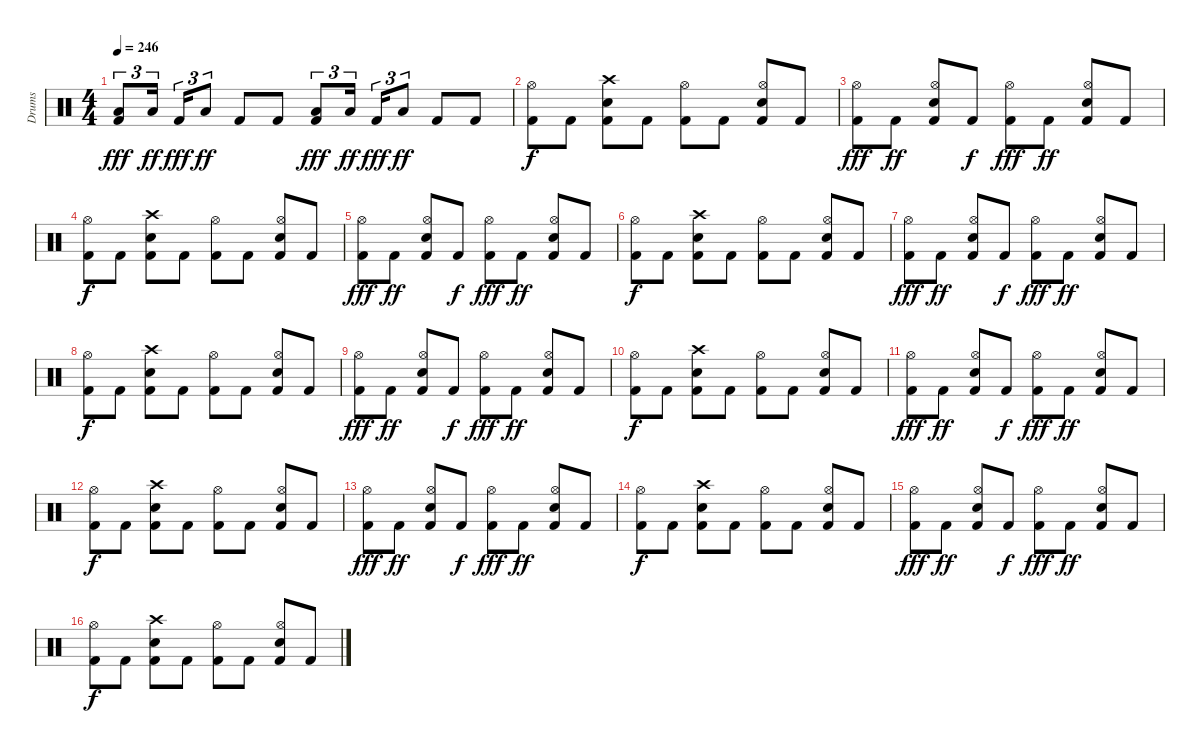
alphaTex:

\track ("Drums" "Drums") {instrument percussion}
\staff {score}
\articulation defaults
\ts (4 4)
\tempo 246
\clef neutral
\ks c
("Kick (hit) 2" "Low Tom (hit)").8{tu (3 2) dy fff volume 12} "Low Tom (hit)".16{tu (3 2) dy ff} "Kick (hit) 2".16{tu (3 2) dy fff} "Low Tom (hit)".8{tu (3 2) dy ff} "Kick (hit) 2".8 "Kick (hit) 2".8 ("Kick (hit) 2" "Low Floor Tom (hit)").8{tu (3 2) dy fff} "Low Floor Tom (hit)".16{tu (3 2) dy ff} "Kick (hit) 2".16{tu (3 2) dy fff} "Low Floor Tom (hit)".8{tu (3 2) dy ff} "Kick (hit) 2".8 "Kick (hit) 2".8 |
("Kick (hit) 2" "Hi-Hat (open)").8{dy f volume 12} "Kick (hit) 2".8 ("Kick (hit) 2" "Snare (hit) 2" "Crash high (hit)").8 "Kick (hit) 2".8 ("Kick (hit) 2" "Hi-Hat (open)").8 "Kick (hit) 2".8 ("Kick (hit) 2" "Snare (hit) 2" "Hi-Hat (open)").8 "Kick (hit) 2".8 |
("Kick (hit) 2" "Hi-Hat (open)").8{dy fff volume 12} "Kick (hit) 2".8{dy ff} ("Kick (hit) 2" "Snare (hit) 2" "Hi-Hat (open)").8 "Kick (hit) 2".8{dy f} ("Kick (hit) 2" "Hi-Hat (open)").8{dy fff} "Kick (hit) 2".8{dy ff} ("Kick (hit) 2" "Snare (hit) 2" "Hi-Hat (open)").8 "Kick (hit) 2".8 |
("Kick (hit) 2" "Hi-Hat (open)").8{dy f volume 12} "Kick (hit) 2".8 ("Kick (hit) 2" "Snare (hit) 2" "Crash high (hit)").8 "Kick (hit) 2".8 ("Kick (hit) 2" "Hi-Hat (open)").8 "Kick (hit) 2".8 ("Kick (hit) 2" "Snare (hit) 2" "Hi-Hat (open)").8 "Kick (hit) 2".8 |
("Kick (hit) 2" "Hi-Hat (open)").8{dy fff volume 12} "Kick (hit) 2".8{dy ff} ("Kick (hit) 2" "Snare (hit) 2" "Hi-Hat (open)").8 "Kick (hit) 2".8{dy f} ("Kick (hit) 2" "Hi-Hat (open)").8{dy fff} "Kick (hit) 2".8{dy ff} ("Kick (hit) 2" "Snare (hit) 2" "Hi-Hat (open)").8 "Kick (hit) 2".8 |
("Kick (hit) 2" "Hi-Hat (open)").8{dy f volume 12} "Kick (hit) 2".8 ("Kick (hit) 2" "Snare (hit) 2" "Crash high (hit)").8 "Kick (hit) 2".8 ("Kick (hit) 2" "Hi-Hat (open)").8 "Kick (hit) 2".8 ("Kick (hit) 2" "Snare (hit) 2" "Hi-Hat (open)").8 "Kick (hit) 2".8 |
("Kick (hit) 2" "Hi-Hat (open)").8{dy fff volume 12} "Kick (hit) 2".8{dy ff} ("Kick (hit) 2" "Snare (hit) 2" "Hi-Hat (open)").8 "Kick (hit) 2".8{dy f} ("Kick (hit) 2" "Hi-Hat (open)").8{dy fff} "Kick (hit) 2".8{dy ff} ("Kick (hit) 2" "Snare (hit) 2" "Hi-Hat (open)").8 "Kick (hit) 2".8 |
("Kick (hit) 2" "Hi-Hat (open)").8{dy f volume 12} "Kick (hit) 2".8 ("Kick (hit) 2" "Snare (hit) 2" "Crash high (hit)").8 "Kick (hit) 2".8 ("Kick (hit) 2" "Hi-Hat (open)").8 "Kick (hit) 2".8 ("Kick (hit) 2" "Snare (hit) 2" "Hi-Hat (open)").8 "Kick (hit) 2".8 |
("Kick (hit) 2" "Hi-Hat (open)").8{dy fff volume 12} "Kick (hit) 2".8{dy ff} ("Kick (hit) 2" "Snare (hit) 2" "Hi-Hat (open)").8 "Kick (hit) 2".8{dy f} ("Kick (hit) 2" "Hi-Hat (open)").8{dy fff} "Kick (hit) 2".8{dy ff} ("Kick (hit) 2" "Snare (hit) 2" "Hi-Hat (open)").8 "Kick (hit) 2".8 |
("Kick (hit) 2" "Hi-Hat (open)").8{dy f volume 12} "Kick (hit) 2".8 ("Kick (hit) 2" "Snare (hit) 2" "Crash high (hit)").8 "Kick (hit) 2".8 ("Kick (hit) 2" "Hi-Hat (open)").8 "Kick (hit) 2".8 ("Kick (hit) 2" "Snare (hit) 2" "Hi-Hat (open)").8 "Kick (hit) 2".8 |
("Kick (hit) 2" "Hi-Hat (open)").8{dy fff volume 12} "Kick (hit) 2".8{dy ff} ("Kick (hit) 2" "Snare (hit) 2" "Hi-Hat (open)").8 "Kick (hit) 2".8{dy f} ("Kick (hit) 2" "Hi-Hat (open)").8{dy fff} "Kick (hit) 2".8{dy ff} ("Kick (hit) 2" "Snare (hit) 2" "Hi-Hat (open)").8 "Kick (hit) 2".8 |
("Kick (hit) 2" "Hi-Hat (open)").8{dy f volume 12} "Kick (hit) 2".8 ("Kick (hit) 2" "Snare (hit) 2" "Crash high (hit)").8 "Kick (hit) 2".8 ("Kick (hit) 2" "Hi-Hat (open)").8 "Kick (hit) 2".8 ("Kick (hit) 2" "Snare (hit) 2" "Hi-Hat (open)").8 "Kick (hit) 2".8 |
("Kick (hit) 2" "Hi-Hat (open)").8{dy fff volume 12} "Kick (hit) 2".8{dy ff} ("Kick (hit) 2" "Snare (hit) 2" "Hi-Hat (open)").8 "Kick (hit) 2".8{dy f} ("Kick (hit) 2" "Hi-Hat (open)").8{dy fff} "Kick (hit) 2".8{dy ff} ("Kick (hit) 2" "Snare (hit) 2" "Hi-Hat (open)").8 "Kick (hit) 2".8 |
("Kick (hit) 2" "Hi-Hat (open)").8{dy f volume 12} "Kick (hit) 2".8 ("Kick (hit) 2" "Snare (hit) 2" "Crash high (hit)").8 "Kick (hit) 2".8 ("Kick (hit) 2" "Hi-Hat (open)").8 "Kick (hit) 2".8 ("Kick (hit) 2" "Snare (hit) 2" "Hi-Hat (open)").8 "Kick (hit) 2".8 |
("Kick (hit) 2" "Hi-Hat (open)").8{dy fff volume 12} "Kick (hit) 2".8{dy ff} ("Kick (hit) 2" "Snare (hit) 2" "Hi-Hat (open)").8 "Kick (hit) 2".8{dy f} ("Kick (hit) 2" "Hi-Hat (open)").8{dy fff} "Kick (hit) 2".8{dy ff} ("Kick (hit) 2" "Snare (hit) 2" "Hi-Hat (open)").8 "Kick (hit) 2".8 |
("Kick (hit) 2" "Hi-Hat (open)").8{dy f volume 12} "Kick (hit) 2".8 ("Kick (hit) 2" "Snare (hit) 2" "Crash high (hit)").8 "Kick (hit) 2".8 ("Kick (hit) 2" "Hi-Hat (open)").8 "Kick (hit) 2".8 ("Kick (hit) 2" "Snare (hit) 2" "Hi-Hat (open)").8 "Kick (hit) 2".8
